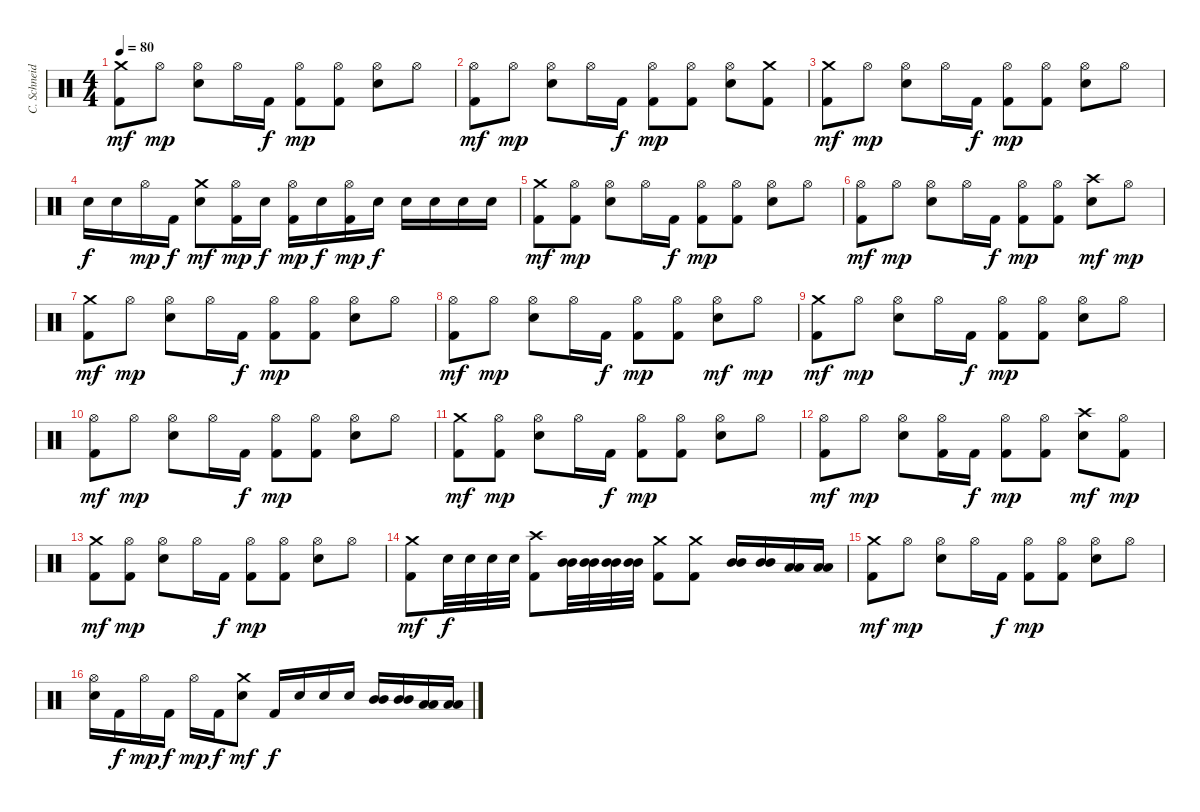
\track ("C. Schneider" "C. Schneid") {instrument percussion}
\staff {score}
\articulation defaults
\ts (4 4)
\tempo 80
\clef neutral
\ks c
("Crash medium (hit)" "Kick (hit) 2").8{dy mf} "Hi-Hat (open)".8{dy mp} ("Hi-Hat (open)" "Snare (hit) 2").8 "Hi-Hat (open)".16 "Kick (hit) 2".16{dy f} ("Hi-Hat (open)" "Kick (hit) 2").8{dy mp} ("Hi-Hat (open)" "Kick (hit) 2").8 ("Hi-Hat (open)" "Snare (hit) 2").8 "Hi-Hat (open)".8 |
("Hi-Hat (open)" "Kick (hit) 2").8{dy mf} "Hi-Hat (open)".8{dy mp} ("Hi-Hat (open)" "Snare (hit) 2").8 "Hi-Hat (open)".16 "Kick (hit) 2".16{dy f} ("Hi-Hat (open)" "Kick (hit) 2").8{dy mp} ("Hi-Hat (open)" "Kick (hit) 2").8 ("Hi-Hat (open)" "Snare (hit) 2").8 ("Crash medium (hit)" "Kick (hit) 2").8 |
("Crash medium (hit)" "Kick (hit) 2").8{dy mf} "Hi-Hat (open)".8{dy mp} ("Hi-Hat (open)" "Snare (hit) 2").8 "Hi-Hat (open)".16 "Kick (hit) 2".16{dy f} ("Hi-Hat (open)" "Kick (hit) 2").8{dy mp} ("Hi-Hat (open)" "Kick (hit) 2").8 ("Hi-Hat (open)" "Snare (hit) 2").8 "Hi-Hat (open)".8 |
"Snare (hit) 2".16{dy f} "Snare (hit) 2".16 "Hi-Hat (open)".16{dy mp} "Kick (hit) 2".16{dy f} ("Crash medium (hit)" "Snare (hit) 2").8{dy mf} ("Hi-Hat (open)" "Kick (hit) 2").16{dy mp} "Snare (hit) 2".16{dy f} ("Hi-Hat (open)" "Kick (hit) 2").16{dy mp} "Snare (hit) 2".16{dy f} ("Hi-Hat (open)" "Kick (hit) 2").16{dy mp} "Snare (hit) 2".16{dy f} "Snare (hit) 2".16 "Snare (hit) 2".16 "Snare (hit) 2".16 "Snare (hit) 2".16 |
("Crash medium (hit)" "Kick (hit) 2").8{dy mf} ("Hi-Hat (open)" "Kick (hit) 2").8{dy mp} ("Hi-Hat (open)" "Snare (hit) 2").8 "Hi-Hat (open)".16 "Kick (hit) 2".16{dy f} ("Hi-Hat (open)" "Kick (hit) 2").8{dy mp} ("Hi-Hat (open)" "Kick (hit) 2").8 ("Hi-Hat (open)" "Snare (hit) 2").8 "Hi-Hat (open)".8 |
("Hi-Hat (open)" "Kick (hit) 2").8{dy mf} "Hi-Hat (open)".8{dy mp} ("Hi-Hat (open)" "Snare (hit) 2").8 "Hi-Hat (open)".16 "Kick (hit) 2".16{dy f} ("Hi-Hat (open)" "Kick (hit) 2").8{dy mp} ("Hi-Hat (open)" "Kick (hit) 2").8 ("Crash high (hit)" "Snare (hit) 2").8{dy mf} "Hi-Hat (open)".8{dy mp} |
("Crash medium (hit)" "Kick (hit) 2").8{dy mf} "Hi-Hat (open)".8{dy mp} ("Hi-Hat (open)" "Snare (hit) 2").8 "Hi-Hat (open)".16 "Kick (hit) 2".16{dy f} ("Hi-Hat (open)" "Kick (hit) 2").8{dy mp} ("Hi-Hat (open)" "Kick (hit) 2").8 ("Hi-Hat (open)" "Snare (hit) 2").8 "Hi-Hat (open)".8 |
("Hi-Hat (open)" "Kick (hit) 2").8{dy mf} "Hi-Hat (open)".8{dy mp} ("Hi-Hat (open)" "Snare (hit) 2").8 "Hi-Hat (open)".16 "Kick (hit) 2".16{dy f} ("Hi-Hat (open)" "Kick (hit) 2").8{dy mp} ("Hi-Hat (open)" "Kick (hit) 2").8 ("Hi-Hat (open)" "Snare (hit) 2").8{dy mf} "Hi-Hat (open)".8{dy mp} |
("Crash medium (hit)" "Kick (hit) 2").8{dy mf} "Hi-Hat (open)".8{dy mp} ("Hi-Hat (open)" "Snare (hit) 2").8 "Hi-Hat (open)".16 "Kick (hit) 2".16{dy f} ("Hi-Hat (open)" "Kick (hit) 2").8{dy mp} ("Hi-Hat (open)" "Kick (hit) 2").8 ("Hi-Hat (open)" "Snare (hit) 2").8 "Hi-Hat (open)".8 |
("Hi-Hat (open)" "Kick (hit) 2").8{dy mf} "Hi-Hat (open)".8{dy mp} ("Hi-Hat (open)" "Snare (hit) 2").8 "Hi-Hat (open)".16 "Kick (hit) 2".16{dy f} ("Hi-Hat (open)" "Kick (hit) 2").8{dy mp} ("Hi-Hat (open)" "Kick (hit) 2").8 ("Hi-Hat (open)" "Snare (hit) 2").8 "Hi-Hat (open)".8 |
("Crash medium (hit)" "Kick (hit) 2").8{dy mf} ("Hi-Hat (open)" "Kick (hit) 2").8{dy mp} ("Hi-Hat (open)" "Snare (hit) 2").8 "Hi-Hat (open)".16 "Kick (hit) 2".16{dy f} ("Hi-Hat (open)" "Kick (hit) 2").8{dy mp} ("Hi-Hat (open)" "Kick (hit) 2").8 ("Hi-Hat (open)" "Snare (hit) 2").8 "Hi-Hat (open)".8 |
("Hi-Hat (open)" "Kick (hit) 2").8{dy mf} "Hi-Hat (open)".8{dy mp} ("Hi-Hat (open)" "Snare (hit) 2").8 ("Hi-Hat (open)" "Kick (hit) 2").16 "Kick (hit) 2".16{dy f} ("Hi-Hat (open)" "Kick (hit) 2").8{dy mp} ("Hi-Hat (open)" "Kick (hit) 2").8 ("Crash high (hit)" "Snare (hit) 2").8{dy mf} ("Hi-Hat (open)" "Kick (hit) 2").8{dy mp} |
("Crash medium (hit)" "Kick (hit) 2").8{dy mf} ("Hi-Hat (open)" "Kick (hit) 2").8{dy mp} ("Hi-Hat (open)" "Snare (hit) 2").8 "Hi-Hat (open)".16 "Kick (hit) 2".16{dy f} ("Hi-Hat (open)" "Kick (hit) 2").8{dy mp} ("Hi-Hat (open)" "Kick (hit) 2").8 ("Hi-Hat (open)" "Snare (hit) 2").8 "Hi-Hat (open)".8 |
("Crash medium (hit)" "Kick (hit) 2").8{dy mf} "Snare (hit) 2".32{dy f} "Snare (hit) 2".32 "Snare (hit) 2".32 "Snare (hit) 2".32 ("Crash high (hit)" "Kick (hit) 2").8 ("Mid Tom (hit)" "Mid Tom (hit)").32 ("Mid Tom (hit)" "Mid Tom (hit)").32 ("Mid Tom (hit)" "Mid Tom (hit)").32 ("Mid Tom (hit)" "Mid Tom (hit)").32 ("Crash medium (hit)" "Kick (hit) 2").8 ("Crash medium (hit)" "Kick (hit) 2").8 ("Mid Tom (hit)" "Mid Tom (hit)").16 ("Mid Tom (hit)" "Mid Tom (hit)").16 ("Low Tom (hit)" "Low Tom (hit)").16 ("Low Tom (hit)" "Low Tom (hit)").16 |
("Crash medium (hit)" "Kick (hit) 2").8{dy mf} "Hi-Hat (open)".8{dy mp} ("Hi-Hat (open)" "Snare (hit) 2").8 "Hi-Hat (open)".16 "Kick (hit) 2".16{dy f} ("Hi-Hat (open)" "Kick (hit) 2").8{dy mp} ("Hi-Hat (open)" "Kick (hit) 2").8 ("Hi-Hat (open)" "Snare (hit) 2").8 "Hi-Hat (open)".8 |
("Hi-Hat (open)" "Snare (hit) 2").16 "Kick (hit) 2".16{dy f} "Hi-Hat (open)".16{dy mp} "Kick (hit) 2".16{dy f} "Hi-Hat (open)".16{dy mp} "Kick (hit) 2".16{dy f} ("Crash medium (hit)" "Snare (hit) 2").8{dy mf} "Kick (hit) 2".16{dy f} "Snare (hit) 2".16 "Snare (hit) 2".16 "Snare (hit) 2".16 ("Mid Tom (hit)" "Mid Tom (hit)").16 ("Mid Tom (hit)" "Mid Tom (hit)").16 ("Low Tom (hit)" "Low Tom (hit)").16 ("Low Tom (hit)" "Low Tom (hit)").16
